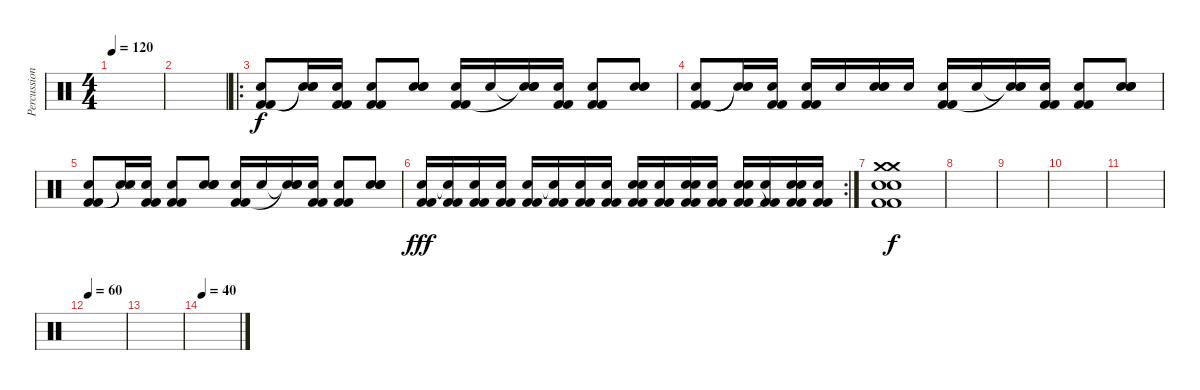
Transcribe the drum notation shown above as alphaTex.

\track ("Percussion" "Percussion") {instrument percussion}
\staff {score}
\articulation defaults
\ts (4 4)
\tempo 120
\clef neutral
\ks c
|
|
\ro
("Kick (hit) 2" "Kick (hit) 2" "Snare (hit) 2").8 ("Snare (hit)"{t} "Snare (hit)"{t} "Snare (hit) 2").16 ("Kick (hit) 2" "Kick (hit) 2" "Snare (hit) 2").16 ("Kick (hit) 2" "Kick (hit) 2" "Snare (hit) 2").8 ("Electric Snare (hit)" "Electric Snare (hit)" "Snare (hit) 2").8 ("Kick (hit) 2" "Kick (hit) 2" "Snare (hit) 2").16 "Snare (hit) 2".16 ("Snare (hit)"{t} "Snare (hit)"{t} "Snare (hit) 2").16 ("Kick (hit) 2" "Kick (hit) 2" "Snare (hit) 2").16 ("Kick (hit) 2" "Kick (hit) 2" "Snare (hit) 2").8 ("Electric Snare (hit)" "Electric Snare (hit)" "Snare (hit) 2").8 |
("Kick (hit) 2" "Kick (hit) 2" "Snare (hit) 2").8 ("Snare (hit)"{t} "Snare (hit)"{t} "Snare (hit) 2").16 ("Kick (hit) 2" "Kick (hit) 2" "Snare (hit) 2").16 ("Kick (hit) 2" "Kick (hit) 2" "Snare (hit) 2").16 "Snare (hit) 2".16 ("Electric Snare (hit)" "Electric Snare (hit)" "Snare (hit) 2").16 "Snare (hit) 2".16 ("Kick (hit) 2" "Kick (hit) 2" "Snare (hit) 2").16 "Snare (hit) 2".16 ("Snare (hit)"{t} "Snare (hit)"{t} "Snare (hit) 2").16 ("Kick (hit) 2" "Kick (hit) 2" "Snare (hit) 2").16 ("Kick (hit) 2" "Kick (hit) 2" "Snare (hit) 2").8 ("Electric Snare (hit)" "Electric Snare (hit)" "Snare (hit) 2").8 |
("Kick (hit) 2" "Kick (hit) 2" "Snare (hit) 2").8 ("Snare (hit)"{t} "Metronome (hit)"{t} "Snare (hit) 2").16 ("Kick (hit) 2" "Kick (hit) 2" "Snare (hit) 2").16 ("Kick (hit) 2" "Kick (hit) 2" "Snare (hit) 2").8 ("Electric Snare (hit)" "Electric Snare (hit)" "Snare (hit) 2").8 ("Kick (hit) 2" "Kick (hit) 2" "Snare (hit) 2").16 "Snare (hit) 2".16 ("Snare (hit)"{t} "Snare (hit)"{t} "Snare (hit) 2").16 ("Kick (hit) 2" "Kick (hit) 2" "Snare (hit) 2").16 ("Kick (hit) 2" "Kick (hit) 2" "Snare (hit) 2").8 ("Electric Snare (hit)" "Electric Snare (hit)" "Snare (hit) 2").8 |
\rc 2
("Kick (hit) 2" "Kick (hit) 2" "Snare (hit) 2").16{dy fff} ("Kick (hit) 2" "Kick (hit) 2" "Snare (hit) 2"{t}).16 ("Kick (hit) 2" "Kick (hit) 2" "Snare (hit) 2").16 ("Kick (hit) 2" "Kick (hit) 2" "Snare (hit) 2").16 ("Kick (hit) 2" "Kick (hit) 2" "Snare (hit) 2").16 ("Kick (hit) 2" "Kick (hit) 2" "Snare (hit) 2"{t}).16 ("Kick (hit) 2" "Kick (hit) 2" "Snare (hit) 2").16 ("Kick (hit) 2" "Kick (hit) 2" "Snare (hit) 2").16 ("Electric Snare (hit)" "Kick (hit) 2" "Kick (hit) 2" "Snare (hit) 2").16 ("Kick (hit) 2" "Kick (hit) 2" "Snare (hit) 2").16 ("Electric Snare (hit)" "Kick (hit) 2" "Kick (hit) 2" "Snare (hit) 2").16 ("Kick (hit) 2" "Kick (hit) 2" "Snare (hit) 2").16 ("Electric Snare (hit)" "Kick (hit) 2" "Kick (hit) 2" "Snare (hit) 2").16 ("Kick (hit) 2" "Kick (hit) 2" "Snare (hit)"{t}).16 ("Electric Snare (hit)" "Kick (hit) 2" "Kick (hit) 2" "Snare (hit) 2").16 ("Kick (hit) 2" "Kick (hit) 2" "Snare (hit) 2").16 |
("Crash medium (hit)" "Crash medium (hit)" "Snare (hit) 2" "Snare (hit) 2" "Kick (hit) 2" "Kick (hit) 2").1{dy f} |
|
|
|
|
\tempo 60
|
|
\tempo 40
